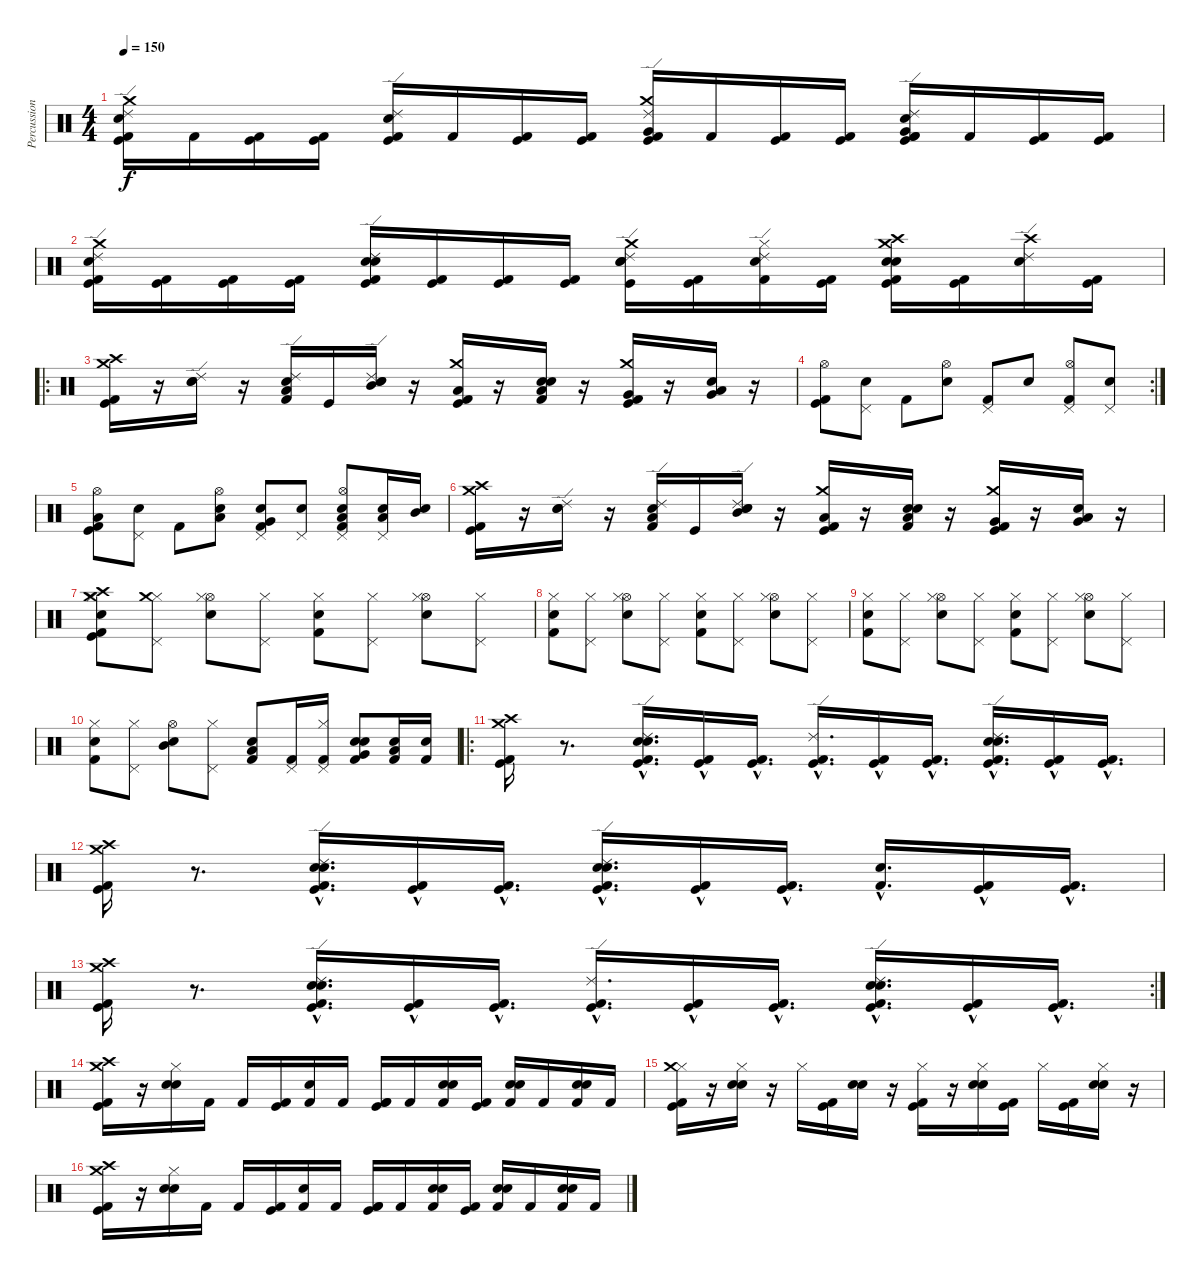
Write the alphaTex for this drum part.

\track ("Percussion" "Percussion") {instrument percussion}
\staff {score}
\articulation defaults
\ts (4 4)
\tempo 150
\clef neutral
\ks c
("Ride (edge) 2" "Kick (hit) 2" "Kick (hit)" "Snare (hit) 2" "Crash medium (hit)").16{dy f} "Kick (hit) 2".16 ("Kick (hit) 2" "Kick (hit)").16 ("Kick (hit) 2" "Kick (hit)").16 ("Kick (hit) 2" "Snare (hit) 2" "Ride (edge) 2" "Kick (hit)").16 "Kick (hit) 2".16 ("Kick (hit) 2" "Kick (hit)").16 ("Kick (hit) 2" "Kick (hit)").16 ("Ride (edge) 2" "Kick (hit) 2" "Kick (hit)" "Crash medium (hit)" "Very Low Tom (hit)").16 "Kick (hit) 2".16 ("Kick (hit) 2" "Kick (hit)").16 ("Kick (hit) 2" "Kick (hit)").16 ("Kick (hit) 2" "Snare (hit) 2" "Ride (edge) 2" "Kick (hit) 2" "Kick (hit)" "Very Low Tom (hit)").16 "Kick (hit) 2".16 ("Kick (hit) 2" "Kick (hit)").16 ("Kick (hit) 2" "Kick (hit)").16 |
("Ride (edge) 2" "Kick (hit) 2" "Kick (hit)" "Snare (hit) 2" "Crash medium (hit)").16 ("Kick (hit) 2" "Kick (hit)").16 ("Kick (hit) 2" "Kick (hit)").16 ("Kick (hit) 2" "Kick (hit)").16 ("Electric Snare (hit)" "Snare (hit) 2" "Ride (edge) 2" "Kick (hit) 2" "Kick (hit)").16 ("Kick (hit) 2" "Kick (hit)").16 ("Kick (hit) 2" "Kick (hit)").16 ("Kick (hit) 2" "Kick (hit)").16 ("Ride (edge) 2" "Electric Snare (hit)" "Snare (hit) 2" "Crash medium (hit)" "Kick (hit)").16 ("Kick (hit) 2" "Kick (hit)").16 ("Kick (hit) 2" "Hi-Hat (closed)" "Snare (hit) 2" "Ride (edge) 2").16 ("Kick (hit) 2" "Kick (hit)").16 ("Electric Snare (hit)" "Kick (hit) 2" "Kick (hit)" "Snare (hit) 2" "Crash high (hit)" "Crash medium (hit)").16 ("Kick (hit) 2" "Kick (hit)").16 ("Ride (edge) 2" "Snare (hit) 2" "Crash high (hit)").16 ("Kick (hit) 2" "Kick (hit)").16 |
\ro
("Crash medium (hit)" "Crash high (hit)" "Kick (hit) 2" "Kick (hit)").16 r.16 ("Ride (edge) 2" "Electric Snare (hit)" "Snare (hit) 2").16 r.16 ("Ride (edge) 2" "Kick (hit) 2" "Snare (hit) 2" "Low Floor Tom (hit)").16 "Kick (hit)".16 ("Ride (edge) 2" "Electric Snare (hit)" "Snare (hit) 2" "Mid Tom (hit)").16 r.16 ("Low Tom (hit)" "Crash medium (hit)" "Kick (hit) 2" "Kick (hit)").16 r.16 ("Electric Snare (hit)" "Snare (hit) 2" "Kick (hit) 2" "Low Floor Tom (hit)").16 r.16 ("Very Low Tom (hit)" "Crash medium (hit)" "Kick (hit) 2" "Kick (hit)").16 r.16 ("Low Floor Tom (hit)" "Snare (hit) 2" "Very Low Tom (hit)").16 r.16 |
\rc 2
("Kick (hit) 2" "Kick (hit)" "Hi-Hat (open)").8 ("Pedal Hi-Hat (hit)" "Snare (hit) 2").8 "Kick (hit) 2".8 ("Snare (hit) 2" "Hi-Hat (open)").8 ("Pedal Hi-Hat (hit)" "Kick (hit) 2").8 "Snare (hit) 2".8 ("Pedal Hi-Hat (hit)" "Hi-Hat (open)" "Kick (hit) 2").8 ("Pedal Hi-Hat (hit)" "Snare (hit) 2").8 |
("Kick (hit) 2" "Kick (hit)" "Hi-Hat (open)" "Low Floor Tom (hit)").8 ("Pedal Hi-Hat (hit)" "Snare (hit) 2").8 "Kick (hit) 2".8 ("Snare (hit) 2" "Hi-Hat (open)" "Low Floor Tom (hit)").8 ("Pedal Hi-Hat (hit)" "Kick (hit) 2" "Snare (hit) 2" "Very Low Tom (hit)").8 ("Snare (hit) 2" "Pedal Hi-Hat (hit)").8 ("Pedal Hi-Hat (hit)" "Hi-Hat (open)" "Kick (hit) 2" "Snare (hit) 2" "Low Tom (hit)").8 ("Pedal Hi-Hat (hit)" "Snare (hit) 2" "Low Tom (hit)").16 ("Snare (hit) 2" "Mid Tom (hit)").16 |
("Crash medium (hit)" "Crash high (hit)" "Kick (hit) 2" "Kick (hit)").16 r.16 ("Ride (edge) 2" "Electric Snare (hit)" "Snare (hit) 2").16 r.16 ("Ride (edge) 2" "Kick (hit) 2" "Snare (hit) 2" "Low Floor Tom (hit)").16 "Kick (hit)".16 ("Ride (edge) 2" "Electric Snare (hit)" "Snare (hit) 2" "Mid Tom (hit)").16 r.16 ("Low Tom (hit)" "Crash medium (hit)" "Kick (hit) 2" "Kick (hit)").16 r.16 ("Electric Snare (hit)" "Snare (hit) 2" "Kick (hit) 2" "Low Floor Tom (hit)").16 r.16 ("Very Low Tom (hit)" "Crash medium (hit)" "Kick (hit) 2" "Kick (hit)").16 r.16 ("Low Floor Tom (hit)" "Snare (hit) 2" "Very Low Tom (hit)").16 r.16 |
("Snare (hit) 2" "Kick (hit) 2" "Kick (hit)" "Hi-Hat (closed)" "Crash high (hit)" "Crash medium (hit)").8 ("Pedal Hi-Hat (hit)" "Hi-Hat (closed)" "Crash medium (hit)").8 ("Hi-Hat (open)" "Hand Clap (hit)" "Hi-Hat (closed)").8 ("Pedal Hi-Hat (hit)" "Hi-Hat (closed)").8 ("Snare (hit) 2" "Kick (hit) 2" "Hi-Hat (closed)").8 ("Pedal Hi-Hat (hit)" "Hi-Hat (closed)").8 ("Hi-Hat (open)" "Hand Clap (hit)" "Hi-Hat (closed)").8 ("Pedal Hi-Hat (hit)" "Hi-Hat (closed)").8 |
("Snare (hit) 2" "Kick (hit) 2" "Hi-Hat (closed)").8 ("Pedal Hi-Hat (hit)" "Hi-Hat (closed)").8 ("Hi-Hat (open)" "Hand Clap (hit)" "Hi-Hat (closed)").8 ("Pedal Hi-Hat (hit)" "Hi-Hat (closed)").8 ("Snare (hit) 2" "Kick (hit) 2" "Hi-Hat (closed)").8 ("Pedal Hi-Hat (hit)" "Hi-Hat (closed)").8 ("Hi-Hat (open)" "Hand Clap (hit)" "Hi-Hat (closed)").8 ("Pedal Hi-Hat (hit)" "Hi-Hat (closed)").8 |
("Snare (hit) 2" "Kick (hit) 2" "Hi-Hat (closed)").8 ("Pedal Hi-Hat (hit)" "Hi-Hat (closed)").8 ("Hi-Hat (open)" "Hand Clap (hit)" "Hi-Hat (closed)").8 ("Pedal Hi-Hat (hit)" "Hi-Hat (closed)").8 ("Snare (hit) 2" "Kick (hit) 2" "Hi-Hat (closed)").8 ("Pedal Hi-Hat (hit)" "Hi-Hat (closed)").8 ("Hi-Hat (open)" "Hand Clap (hit)" "Hi-Hat (closed)").8 ("Pedal Hi-Hat (hit)" "Hi-Hat (closed)").8 |
("Snare (hit) 2" "Kick (hit) 2" "Hi-Hat (closed)").8 ("Pedal Hi-Hat (hit)" "Hi-Hat (closed)").8 ("Hi-Hat (open)" "Hand Clap (hit)" "Mid Tom (hit)").8 ("Pedal Hi-Hat (hit)" "Hi-Hat (closed)").8 ("Snare (hit) 2" "Kick (hit) 2" "Low Tom (hit)").8 ("Pedal Hi-Hat (hit)" "Kick (hit) 2").16 ("Pedal Hi-Hat (hit)" "Kick (hit) 2" "Hi-Hat (closed)").16 ("Snare (hit) 2" "Kick (hit) 2" "Hand Clap (hit)" "Very Low Tom (hit)").8 ("Snare (hit) 2" "Kick (hit) 2" "Low Floor Tom (hit)").16 ("Snare (hit) 2" "Kick (hit) 2").16 |
\ro
("Crash high (hit)" "Crash medium (hit)" "Kick (hit) 2" "Kick (hit)").16 r.8{d} ("Ride (edge) 2"{hac} "Electric Snare (hit)"{hac} "Snare (hit) 2"{hac} "Kick (hit) 2"{hac} "Kick (hit)"{hac}).16{d} ("Kick (hit) 2"{hac} "Kick (hit)"{hac}).16 ("Kick (hit) 2"{hac} "Kick (hit)"{hac}).16{d} ("Ride (edge) 2"{hac} "Kick (hit) 2"{hac} "Kick (hit)"{hac}).16{d} ("Kick (hit) 2"{hac} "Kick (hit)"{hac}).16 ("Kick (hit) 2"{hac} "Kick (hit)"{hac}).16{d} ("Ride (edge) 2"{hac} "Electric Snare (hit)"{hac} "Snare (hit) 2"{hac} "Kick (hit) 2"{hac} "Kick (hit)"{hac}).16{d} ("Kick (hit) 2"{hac} "Kick (hit)"{hac}).16 ("Kick (hit) 2"{hac} "Kick (hit)"{hac}).16{d} |
("Crash high (hit)" "Crash medium (hit)" "Kick (hit) 2" "Kick (hit)").16 r.8{d} ("Ride (edge) 2"{hac} "Electric Snare (hit)"{hac} "Snare (hit) 2"{hac} "Kick (hit) 2"{hac} "Kick (hit)"{hac}).16{d} ("Kick (hit) 2"{hac} "Kick (hit)"{hac}).16 ("Kick (hit) 2"{hac} "Kick (hit)"{hac}).16{d} ("Ride (edge) 2"{hac} "Electric Snare (hit)"{hac} "Snare (hit) 2"{hac} "Kick (hit) 2"{hac} "Kick (hit)"{hac}).16{d} ("Kick (hit) 2"{hac} "Kick (hit)"{hac}).16 ("Kick (hit) 2"{hac} "Kick (hit)"{hac}).16{d} ("Kick (hit) 2"{hac} "Electric Snare (hit)"{hac}).16{d} ("Kick (hit) 2"{hac} "Kick (hit)"{hac}).16 ("Kick (hit) 2"{hac} "Kick (hit)"{hac}).16{d} |
\rc 2
("Crash high (hit)" "Crash medium (hit)" "Kick (hit) 2" "Kick (hit)").16 r.8{d} ("Ride (edge) 2"{hac} "Electric Snare (hit)"{hac} "Snare (hit) 2"{hac} "Kick (hit) 2"{hac} "Kick (hit)"{hac}).16{d} ("Kick (hit) 2"{hac} "Kick (hit)"{hac}).16 ("Kick (hit) 2"{hac} "Kick (hit)"{hac}).16{d} ("Ride (edge) 2"{hac} "Kick (hit) 2"{hac} "Kick (hit)"{hac}).16{d} ("Kick (hit) 2"{hac} "Kick (hit)"{hac}).16 ("Kick (hit) 2"{hac} "Kick (hit)"{hac}).16{d} ("Ride (edge) 2"{hac} "Electric Snare (hit)"{hac} "Snare (hit) 2"{hac} "Kick (hit) 2"{hac} "Kick (hit)"{hac}).16{d} ("Kick (hit) 2"{hac} "Kick (hit)"{hac}).16 ("Kick (hit) 2"{hac} "Kick (hit)"{hac}).16{d} |
("Crash high (hit)" "Crash medium (hit)" "Kick (hit) 2" "Kick (hit)").16 r.16 ("Hi-Hat (closed)" "Electric Snare (hit)" "Snare (hit) 2").16 "Kick (hit) 2".16 "Kick (hit) 2".16 ("Kick (hit) 2" "Kick (hit)").16 ("Kick (hit) 2" "Snare (hit) 2").16 "Kick (hit) 2".16 ("Kick (hit) 2" "Kick (hit) 2" "Kick (hit)").16 "Kick (hit) 2".16 ("Kick (hit) 2" "Electric Snare (hit)" "Snare (hit) 2").16 ("Kick (hit) 2" "Kick (hit)").16 ("Kick (hit) 2" "Electric Snare (hit)" "Snare (hit) 2").16 "Kick (hit) 2".16 ("Kick (hit) 2" "Electric Snare (hit)" "Snare (hit) 2").16 "Kick (hit) 2".16 |
("Hi-Hat (closed)" "Kick (hit) 2" "Kick (hit)" "Crash medium (hit)").16 r.16 ("Hi-Hat (closed)" "Electric Snare (hit)" "Snare (hit) 2").16 r.16 "Hi-Hat (closed)".16 ("Kick (hit) 2" "Kick (hit)").16 ("Electric Snare (hit)" "Snare (hit) 2").16 r.16 ("Hi-Hat (closed)" "Kick (hit) 2" "Kick (hit)").16 r.16 ("Hi-Hat (closed)" "Electric Snare (hit)" "Snare (hit) 2").16 ("Kick (hit) 2" "Kick (hit)").16 "Hi-Hat (closed)".16 ("Kick (hit) 2" "Kick (hit)").16 ("Hi-Hat (closed)" "Electric Snare (hit)" "Snare (hit) 2").16 r.16 |
("Crash high (hit)" "Crash medium (hit)" "Kick (hit) 2" "Kick (hit)").16 r.16 ("Hi-Hat (closed)" "Electric Snare (hit)" "Snare (hit) 2").16 "Kick (hit) 2".16 "Kick (hit) 2".16 ("Kick (hit) 2" "Kick (hit)").16 ("Kick (hit) 2" "Snare (hit) 2").16 "Kick (hit) 2".16 ("Kick (hit) 2" "Kick (hit) 2" "Kick (hit)").16 "Kick (hit) 2".16 ("Kick (hit) 2" "Electric Snare (hit)" "Snare (hit) 2").16 ("Kick (hit) 2" "Kick (hit)").16 ("Kick (hit) 2" "Electric Snare (hit)" "Snare (hit) 2").16 "Kick (hit) 2".16 ("Kick (hit) 2" "Electric Snare (hit)" "Snare (hit) 2").16 "Kick (hit) 2".16
